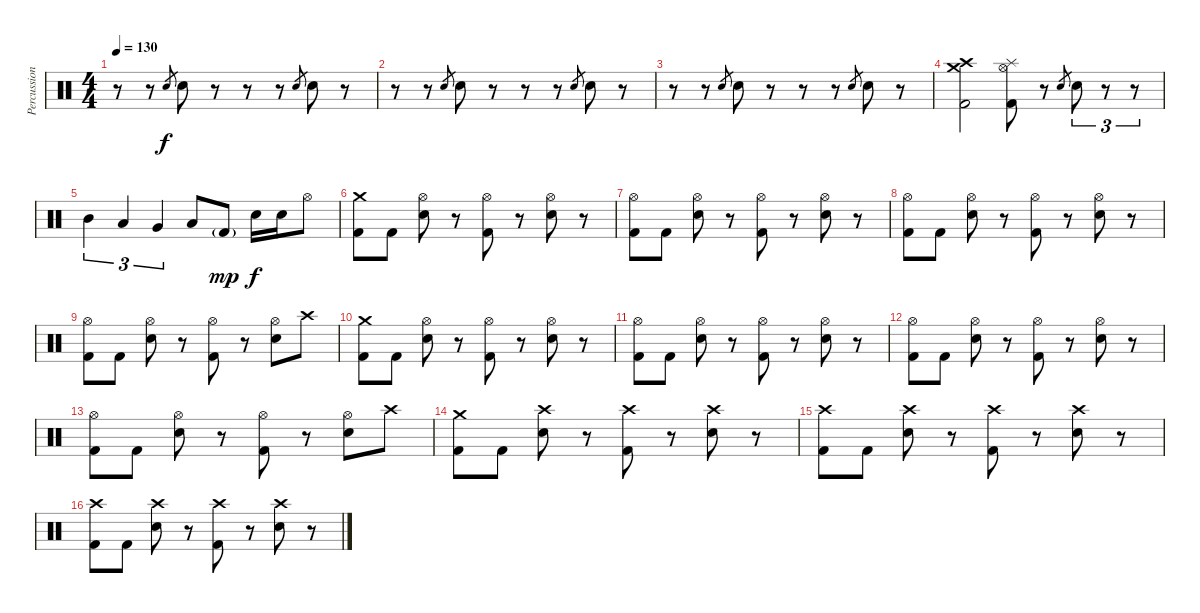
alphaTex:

\track ("Percussions" "Percussion") {instrument percussion}
\staff {score}
\articulation defaults
\ts (4 4)
\tempo 130
\clef neutral
\ks c
r.8{dy f} r.8 "Electric Snare (hit)".8{gr} "Electric Snare (hit)".8 r.8 r.8 r.8 "Electric Snare (hit)".8{gr} "Electric Snare (hit)".8 r.8 |
r.8 r.8 "Electric Snare (hit)".8{gr} "Electric Snare (hit)".8 r.8 r.8 r.8 "Electric Snare (hit)".8{gr} "Electric Snare (hit)".8 r.8 |
r.8 r.8 "Electric Snare (hit)".8{gr} "Electric Snare (hit)".8 r.8 r.8 r.8 "Electric Snare (hit)".8{gr} "Electric Snare (hit)".8 r.8 |
("Crash medium (hit)" "Crash high (hit)" "Kick (hit) 2").2 ("Hi-Hat (open)" "Splash (hit)" "Kick (hit) 2").8 r.8 "Electric Snare (hit)".8{gr} "Electric Snare (hit)".8{tu (3 2)} r.8{tu (3 2)} r.8{tu (3 2)} |
"Mid Tom (hit)".4{tu (3 2)} "Low Tom (hit)".4{tu (3 2)} "Very Low Tom (hit)".4{tu (3 2)} "Low Floor Tom (hit)".8 "Kick (hit) 2"{g}.8{dy mp} "Electric Snare (hit)".16{dy f} "Electric Snare (hit)".16 "Hi-Hat (open)".8 |
("Crash medium (hit)" "Kick (hit) 2").8{volume 14} "Kick (hit) 2".8 ("Hi-Hat (open)" "Electric Snare (hit)").8 r.8 ("Hi-Hat (open)" "Kick (hit) 2").8 r.8 ("Hi-Hat (open)" "Electric Snare (hit)").8 r.8 |
("Hi-Hat (open)" "Kick (hit) 2").8 "Kick (hit) 2".8 ("Hi-Hat (open)" "Electric Snare (hit)").8 r.8 ("Hi-Hat (open)" "Kick (hit) 2").8 r.8 ("Hi-Hat (open)" "Electric Snare (hit)").8 r.8 |
("Hi-Hat (open)" "Kick (hit) 2").8 "Kick (hit) 2".8 ("Hi-Hat (open)" "Electric Snare (hit)").8 r.8 ("Hi-Hat (open)" "Kick (hit) 2").8 r.8 ("Hi-Hat (open)" "Electric Snare (hit)").8 r.8 |
("Hi-Hat (open)" "Kick (hit) 2").8 "Kick (hit) 2".8 ("Hi-Hat (open)" "Electric Snare (hit)").8 r.8 ("Hi-Hat (open)" "Kick (hit) 2").8 r.8 ("Hi-Hat (open)" "Electric Snare (hit)").8 "Crash high (hit)".8 |
("Crash medium (hit)" "Kick (hit) 2").8 "Kick (hit) 2".8 ("Hi-Hat (open)" "Electric Snare (hit)").8 r.8 ("Hi-Hat (open)" "Kick (hit) 2").8 r.8 ("Hi-Hat (open)" "Electric Snare (hit)").8 r.8 |
("Hi-Hat (open)" "Kick (hit) 2").8 "Kick (hit) 2".8 ("Hi-Hat (open)" "Electric Snare (hit)").8 r.8 ("Hi-Hat (open)" "Kick (hit) 2").8 r.8 ("Hi-Hat (open)" "Electric Snare (hit)").8 r.8 |
("Hi-Hat (open)" "Kick (hit) 2").8 "Kick (hit) 2".8 ("Hi-Hat (open)" "Electric Snare (hit)").8 r.8 ("Hi-Hat (open)" "Kick (hit) 2").8 r.8 ("Hi-Hat (open)" "Electric Snare (hit)").8 r.8 |
("Hi-Hat (open)" "Kick (hit) 2").8 "Kick (hit) 2".8 ("Hi-Hat (open)" "Electric Snare (hit)").8 r.8 ("Hi-Hat (open)" "Kick (hit) 2").8 r.8 ("Hi-Hat (open)" "Electric Snare (hit)").8 "Crash high (hit)".8 |
("Crash medium (hit)" "Kick (hit) 2").8 "Kick (hit) 2".8 ("Crash high (hit)" "Electric Snare (hit)").8 r.8 ("Crash high (hit)" "Kick (hit) 2").8 r.8 ("Crash high (hit)" "Electric Snare (hit)").8 r.8 |
("Crash high (hit)" "Kick (hit) 2").8 "Kick (hit) 2".8 ("Crash high (hit)" "Electric Snare (hit)").8 r.8 ("Crash high (hit)" "Kick (hit) 2").8 r.8 ("Crash high (hit)" "Electric Snare (hit)").8 r.8 |
("Crash high (hit)" "Kick (hit) 2").8 "Kick (hit) 2".8 ("Crash high (hit)" "Electric Snare (hit)").8 r.8 ("Crash high (hit)" "Kick (hit) 2").8 r.8 ("Crash high (hit)" "Electric Snare (hit)").8 r.8
